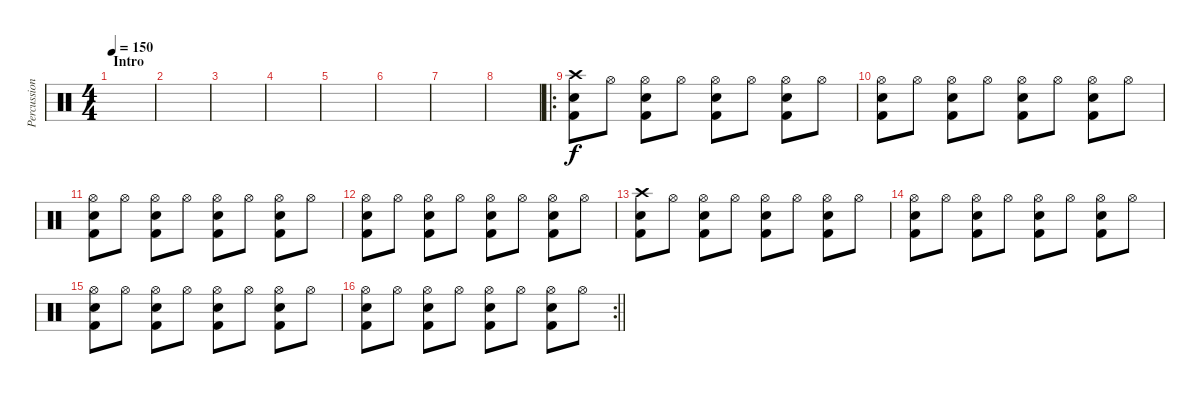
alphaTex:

\track ("Percussion" "Percussion") {instrument percussion}
\staff {score}
\articulation defaults
\ts (4 4)
\section ("" "Intro")
\tempo 150
\clef neutral
\ks c
|
|
|
|
|
|
|
|
\ro
("Crash high (hit)" "Snare (hit) 2" "Kick (hit) 2").8 "Hi-Hat (open)".8 ("Hi-Hat (open)" "Snare (hit) 2" "Kick (hit) 2").8 "Hi-Hat (open)".8 ("Hi-Hat (open)" "Snare (hit) 2" "Kick (hit) 2").8 "Hi-Hat (open)".8 ("Hi-Hat (open)" "Snare (hit) 2" "Kick (hit) 2").8 "Hi-Hat (open)".8 |
("Hi-Hat (open)" "Snare (hit) 2" "Kick (hit) 2").8 "Hi-Hat (open)".8 ("Hi-Hat (open)" "Snare (hit) 2" "Kick (hit) 2").8 "Hi-Hat (open)".8 ("Hi-Hat (open)" "Snare (hit) 2" "Kick (hit) 2").8 "Hi-Hat (open)".8 ("Hi-Hat (open)" "Snare (hit) 2" "Kick (hit) 2").8 "Hi-Hat (open)".8 |
("Hi-Hat (open)" "Snare (hit) 2" "Kick (hit) 2").8 "Hi-Hat (open)".8 ("Hi-Hat (open)" "Snare (hit) 2" "Kick (hit) 2").8 "Hi-Hat (open)".8 ("Hi-Hat (open)" "Snare (hit) 2" "Kick (hit) 2").8 "Hi-Hat (open)".8 ("Hi-Hat (open)" "Snare (hit) 2" "Kick (hit) 2").8 "Hi-Hat (open)".8 |
("Hi-Hat (open)" "Snare (hit) 2" "Kick (hit) 2").8 "Hi-Hat (open)".8 ("Hi-Hat (open)" "Snare (hit) 2" "Kick (hit) 2").8 "Hi-Hat (open)".8 ("Hi-Hat (open)" "Snare (hit) 2" "Kick (hit) 2").8 "Hi-Hat (open)".8 ("Hi-Hat (open)" "Snare (hit) 2" "Kick (hit) 2").8 "Hi-Hat (open)".8 |
("Crash high (hit)" "Snare (hit) 2" "Kick (hit) 2").8 "Hi-Hat (open)".8 ("Hi-Hat (open)" "Snare (hit) 2" "Kick (hit) 2").8 "Hi-Hat (open)".8 ("Hi-Hat (open)" "Snare (hit) 2" "Kick (hit) 2").8 "Hi-Hat (open)".8 ("Hi-Hat (open)" "Snare (hit) 2" "Kick (hit) 2").8 "Hi-Hat (open)".8 |
("Hi-Hat (open)" "Snare (hit) 2" "Kick (hit) 2").8 "Hi-Hat (open)".8 ("Hi-Hat (open)" "Snare (hit) 2" "Kick (hit) 2").8 "Hi-Hat (open)".8 ("Hi-Hat (open)" "Snare (hit) 2" "Kick (hit) 2").8 "Hi-Hat (open)".8 ("Hi-Hat (open)" "Snare (hit) 2" "Kick (hit) 2").8 "Hi-Hat (open)".8 |
("Hi-Hat (open)" "Snare (hit) 2" "Kick (hit) 2").8 "Hi-Hat (open)".8 ("Hi-Hat (open)" "Snare (hit) 2" "Kick (hit) 2").8 "Hi-Hat (open)".8 ("Hi-Hat (open)" "Snare (hit) 2" "Kick (hit) 2").8 "Hi-Hat (open)".8 ("Hi-Hat (open)" "Snare (hit) 2" "Kick (hit) 2").8 "Hi-Hat (open)".8 |
\rc 2
\barLineRight lightlight
("Hi-Hat (open)" "Snare (hit) 2" "Kick (hit) 2").8 "Hi-Hat (open)".8 ("Hi-Hat (open)" "Snare (hit) 2" "Kick (hit) 2").8 "Hi-Hat (open)".8 ("Hi-Hat (open)" "Snare (hit) 2" "Kick (hit) 2").8 "Hi-Hat (open)".8 ("Hi-Hat (open)" "Snare (hit) 2" "Kick (hit) 2").8 "Hi-Hat (open)".8
